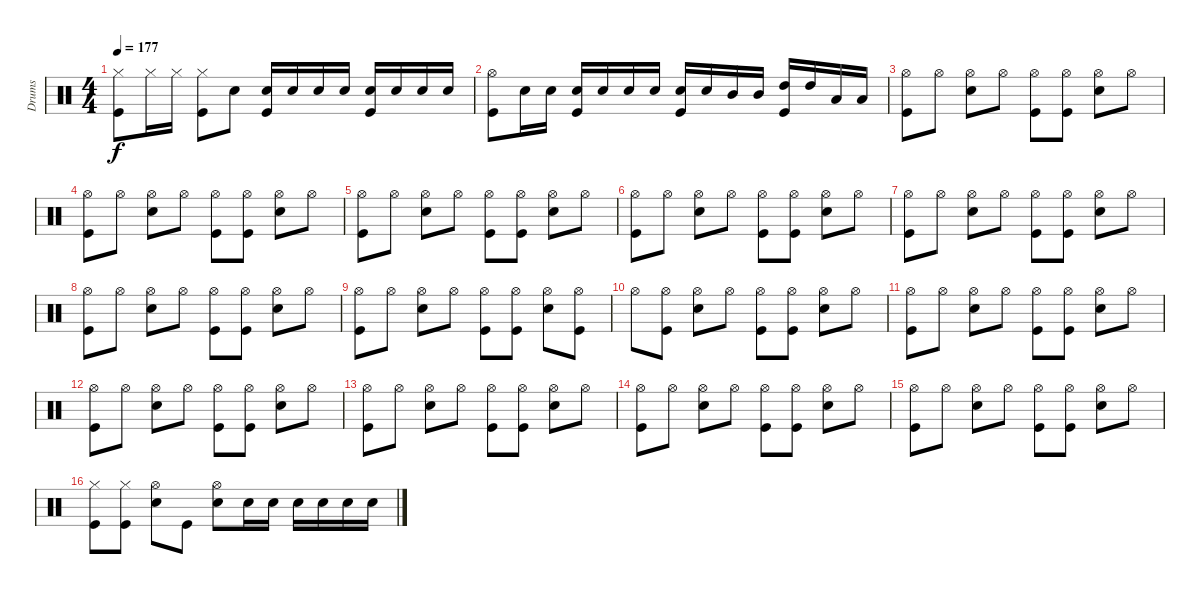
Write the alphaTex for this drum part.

\track ("Drums" "Drums") {instrument percussion}
\staff {score}
\articulation defaults
\ts (4 4)
\tempo 177
\clef neutral
\ks c
("Hi-Hat (closed)" "Kick (hit)").8{dy f} "Hi-Hat (closed)".16 "Hi-Hat (closed)".16 ("Hi-Hat (closed)" "Kick (hit)").8 "Snare (hit) 2".8 ("Snare (hit) 2" "Kick (hit)").16 "Snare (hit) 2".16 "Snare (hit) 2".16 "Snare (hit) 2".16 ("Snare (hit) 2" "Kick (hit)").16 "Snare (hit) 2".16 "Snare (hit) 2".16 "Snare (hit) 2".16 |
("Hi-Hat (open)" "Kick (hit)").8 "Snare (hit) 2".16 "Snare (hit) 2".16 ("Snare (hit) 2" "Kick (hit)").16 "Snare (hit) 2".16 "Snare (hit) 2".16 "Snare (hit) 2".16 ("Snare (hit) 2" "Kick (hit)").16 "Snare (hit) 2".16 "Mid Tom (hit)".16 "Mid Tom (hit)".16 ("High Tom (hit)" "Kick (hit)").16 "High Tom (hit)".16 "Low Tom (hit)".16 "Low Tom (hit)".16 |
("Hi-Hat (open)" "Kick (hit)").8 "Hi-Hat (open)".8 ("Hi-Hat (open)" "Snare (hit) 2").8 "Hi-Hat (open)".8 ("Hi-Hat (open)" "Kick (hit)").8 ("Hi-Hat (open)" "Kick (hit)").8 ("Hi-Hat (open)" "Snare (hit) 2").8 "Hi-Hat (open)".8 |
("Hi-Hat (open)" "Kick (hit)").8 "Hi-Hat (open)".8 ("Hi-Hat (open)" "Snare (hit) 2").8 "Hi-Hat (open)".8 ("Hi-Hat (open)" "Kick (hit)").8 ("Hi-Hat (open)" "Kick (hit)").8 ("Hi-Hat (open)" "Snare (hit) 2").8 "Hi-Hat (open)".8 |
("Hi-Hat (open)" "Kick (hit)").8 "Hi-Hat (open)".8 ("Hi-Hat (open)" "Snare (hit) 2").8 "Hi-Hat (open)".8 ("Hi-Hat (open)" "Kick (hit)").8 ("Hi-Hat (open)" "Kick (hit)").8 ("Hi-Hat (open)" "Snare (hit) 2").8 "Hi-Hat (open)".8 |
("Hi-Hat (open)" "Kick (hit)").8 "Hi-Hat (open)".8 ("Hi-Hat (open)" "Snare (hit) 2").8 "Hi-Hat (open)".8 ("Hi-Hat (open)" "Kick (hit)").8 ("Hi-Hat (open)" "Kick (hit)").8 ("Hi-Hat (open)" "Snare (hit) 2").8 "Hi-Hat (open)".8 |
("Hi-Hat (open)" "Kick (hit)").8 "Hi-Hat (open)".8 ("Hi-Hat (open)" "Snare (hit) 2").8 "Hi-Hat (open)".8 ("Hi-Hat (open)" "Kick (hit)").8 ("Hi-Hat (open)" "Kick (hit)").8 ("Hi-Hat (open)" "Snare (hit) 2").8 "Hi-Hat (open)".8 |
("Hi-Hat (open)" "Kick (hit)").8 "Hi-Hat (open)".8 ("Hi-Hat (open)" "Snare (hit) 2").8 "Hi-Hat (open)".8 ("Hi-Hat (open)" "Kick (hit)").8 ("Hi-Hat (open)" "Kick (hit)").8 ("Hi-Hat (open)" "Snare (hit) 2").8 "Hi-Hat (open)".8 |
("Hi-Hat (open)" "Kick (hit)").8 "Hi-Hat (open)".8 ("Hi-Hat (open)" "Snare (hit) 2").8 "Hi-Hat (open)".8 ("Hi-Hat (open)" "Kick (hit)").8 ("Hi-Hat (open)" "Kick (hit)").8 ("Hi-Hat (open)" "Snare (hit) 2").8 ("Hi-Hat (open)" "Kick (hit)").8 |
"Hi-Hat (open)".8 ("Hi-Hat (open)" "Kick (hit)").8 ("Hi-Hat (open)" "Snare (hit) 2").8 "Hi-Hat (open)".8 ("Hi-Hat (open)" "Kick (hit)").8 ("Hi-Hat (open)" "Kick (hit)").8 ("Hi-Hat (open)" "Snare (hit) 2").8 "Hi-Hat (open)".8 |
("Hi-Hat (open)" "Kick (hit)").8 "Hi-Hat (open)".8 ("Hi-Hat (open)" "Snare (hit) 2").8 "Hi-Hat (open)".8 ("Hi-Hat (open)" "Kick (hit)").8 ("Hi-Hat (open)" "Kick (hit)").8 ("Hi-Hat (open)" "Snare (hit) 2").8 "Hi-Hat (open)".8 |
("Hi-Hat (open)" "Kick (hit)").8 "Hi-Hat (open)".8 ("Hi-Hat (open)" "Snare (hit) 2").8 "Hi-Hat (open)".8 ("Hi-Hat (open)" "Kick (hit)").8 ("Hi-Hat (open)" "Kick (hit)").8 ("Hi-Hat (open)" "Snare (hit) 2").8 "Hi-Hat (open)".8 |
("Hi-Hat (open)" "Kick (hit)").8 "Hi-Hat (open)".8 ("Hi-Hat (open)" "Snare (hit) 2").8 "Hi-Hat (open)".8 ("Hi-Hat (open)" "Kick (hit)").8 ("Hi-Hat (open)" "Kick (hit)").8 ("Hi-Hat (open)" "Snare (hit) 2").8 "Hi-Hat (open)".8 |
("Hi-Hat (open)" "Kick (hit)").8 "Hi-Hat (open)".8 ("Hi-Hat (open)" "Snare (hit) 2").8 "Hi-Hat (open)".8 ("Hi-Hat (open)" "Kick (hit)").8 ("Hi-Hat (open)" "Kick (hit)").8 ("Hi-Hat (open)" "Snare (hit) 2").8 "Hi-Hat (open)".8 |
("Hi-Hat (open)" "Kick (hit)").8 "Hi-Hat (open)".8 ("Hi-Hat (open)" "Snare (hit) 2").8 "Hi-Hat (open)".8 ("Hi-Hat (open)" "Kick (hit)").8 ("Hi-Hat (open)" "Kick (hit)").8 ("Hi-Hat (open)" "Snare (hit) 2").8 "Hi-Hat (open)".8 |
("Hi-Hat (closed)" "Kick (hit)").8 ("Hi-Hat (closed)" "Kick (hit)").8 ("Hi-Hat (open)" "Snare (hit) 2").8 "Kick (hit)".8 ("Hi-Hat (open)" "Snare (hit) 2").8 "Snare (hit) 2".16 "Snare (hit) 2".16 "Snare (hit) 2".16 "Snare (hit) 2".16 "Snare (hit) 2".16 "Snare (hit) 2".16
